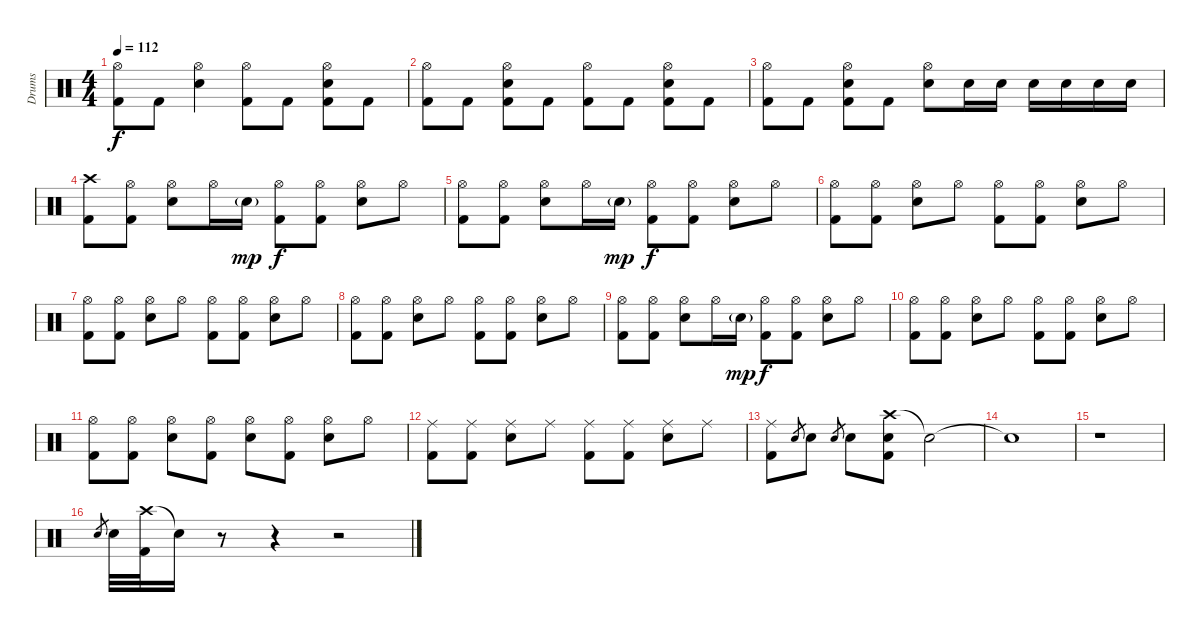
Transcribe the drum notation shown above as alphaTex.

\track ("Drums" "Drums") {instrument percussion}
\staff {score}
\articulation defaults
\ts (4 4)
\tempo 112
\clef neutral
\ks c
("Hi-Hat (open)" "Kick (hit) 2").8{dy f} "Kick (hit) 2".8 ("Hi-Hat (open)" "Snare (hit) 2").4 ("Hi-Hat (open)" "Kick (hit) 2").8 "Kick (hit) 2".8 ("Hi-Hat (open)" "Snare (hit) 2" "Kick (hit) 2").8 "Kick (hit) 2".8 |
("Hi-Hat (open)" "Kick (hit) 2").8 "Kick (hit) 2".8 ("Hi-Hat (open)" "Snare (hit) 2" "Kick (hit) 2").8 "Kick (hit) 2".8 ("Hi-Hat (open)" "Kick (hit) 2").8 "Kick (hit) 2".8 ("Hi-Hat (open)" "Snare (hit) 2" "Kick (hit) 2").8 "Kick (hit) 2".8 |
("Hi-Hat (open)" "Kick (hit) 2").8 "Kick (hit) 2".8 ("Hi-Hat (open)" "Snare (hit) 2" "Kick (hit) 2").8 "Kick (hit) 2".8 ("Hi-Hat (open)" "Snare (hit) 2").8 "Snare (hit) 2".16 "Snare (hit) 2".16 "Snare (hit) 2".16 "Snare (hit) 2".16 "Snare (hit) 2".16 "Snare (hit) 2".16 |
("Crash high (hit)" "Kick (hit) 2").8 ("Hi-Hat (open)" "Kick (hit) 2").8 ("Hi-Hat (open)" "Snare (hit) 2").8 "Hi-Hat (open)".16 "Snare (hit) 2"{g}.16{dy mp} ("Hi-Hat (open)" "Kick (hit) 2").8{dy f} ("Hi-Hat (open)" "Kick (hit) 2").8 ("Hi-Hat (open)" "Snare (hit) 2").8 "Hi-Hat (open)".8 |
("Hi-Hat (open)" "Kick (hit) 2").8 ("Hi-Hat (open)" "Kick (hit) 2").8 ("Hi-Hat (open)" "Snare (hit) 2").8 "Hi-Hat (open)".16 "Snare (hit) 2"{g}.16{dy mp} ("Hi-Hat (open)" "Kick (hit) 2").8{dy f} ("Hi-Hat (open)" "Kick (hit) 2").8 ("Hi-Hat (open)" "Snare (hit) 2").8 "Hi-Hat (open)".8 |
("Hi-Hat (open)" "Kick (hit) 2").8 ("Hi-Hat (open)" "Kick (hit) 2").8 ("Hi-Hat (open)" "Snare (hit) 2").8 "Hi-Hat (open)".8 ("Hi-Hat (open)" "Kick (hit) 2").8 ("Hi-Hat (open)" "Kick (hit) 2").8 ("Hi-Hat (open)" "Snare (hit) 2").8 "Hi-Hat (open)".8 |
("Hi-Hat (open)" "Kick (hit) 2").8 ("Hi-Hat (open)" "Kick (hit) 2").8 ("Hi-Hat (open)" "Snare (hit) 2").8 "Hi-Hat (open)".8 ("Hi-Hat (open)" "Kick (hit) 2").8 ("Hi-Hat (open)" "Kick (hit) 2").8 ("Hi-Hat (open)" "Snare (hit) 2").8 "Hi-Hat (open)".8 |
("Hi-Hat (open)" "Kick (hit) 2").8 ("Hi-Hat (open)" "Kick (hit) 2").8 ("Hi-Hat (open)" "Snare (hit) 2").8 "Hi-Hat (open)".8 ("Hi-Hat (open)" "Kick (hit) 2").8 ("Hi-Hat (open)" "Kick (hit) 2").8 ("Hi-Hat (open)" "Snare (hit) 2").8 "Hi-Hat (open)".8 |
("Hi-Hat (open)" "Kick (hit) 2").8 ("Hi-Hat (open)" "Kick (hit) 2").8 ("Hi-Hat (open)" "Snare (hit) 2").8 "Hi-Hat (open)".16 "Snare (hit) 2"{g}.16{dy mp} ("Hi-Hat (open)" "Kick (hit) 2").8{dy f} ("Hi-Hat (open)" "Kick (hit) 2").8 ("Hi-Hat (open)" "Snare (hit) 2").8 "Hi-Hat (open)".8 |
("Hi-Hat (open)" "Kick (hit) 2").8 ("Hi-Hat (open)" "Kick (hit) 2").8 ("Hi-Hat (open)" "Snare (hit) 2").8 "Hi-Hat (open)".8 ("Hi-Hat (open)" "Kick (hit) 2").8 ("Hi-Hat (open)" "Kick (hit) 2").8 ("Hi-Hat (open)" "Snare (hit) 2").8 "Hi-Hat (open)".8 |
("Hi-Hat (open)" "Kick (hit) 2").8 ("Hi-Hat (open)" "Kick (hit) 2").8 ("Hi-Hat (open)" "Snare (hit) 2").8 ("Hi-Hat (open)" "Kick (hit) 2").8 ("Hi-Hat (open)" "Snare (hit) 2").8 ("Hi-Hat (open)" "Kick (hit) 2").8 ("Hi-Hat (open)" "Snare (hit) 2").8 "Hi-Hat (open)".8 |
("Ride (middle)" "Kick (hit) 2").8 ("Ride (middle)" "Kick (hit) 2").8 ("Ride (middle)" "Snare (hit) 2").8 "Ride (middle)".8 ("Ride (middle)" "Kick (hit) 2").8 ("Ride (middle)" "Kick (hit) 2").8 ("Ride (middle)" "Snare (hit) 2").8 "Ride (middle)".8 |
("Ride (middle)" "Kick (hit) 2").8 "Snare (hit) 2".8{gr} "Snare (hit) 2".8 "Snare (hit) 2".8{gr} "Snare (hit) 2".8 ("Crash high (hit)" "Snare (hit) 2" "Kick (hit) 2").8 "Snare (hit)"{t}.2 |
"Snare (hit)"{t}.1 |
r.1 |
"Snare (hit) 2".8{gr} "Snare (hit) 2".32 ("Crash high (hit)" "Kick (hit) 2").32 "Snare (hit)"{t}.16 r.8 r.4 r.2
